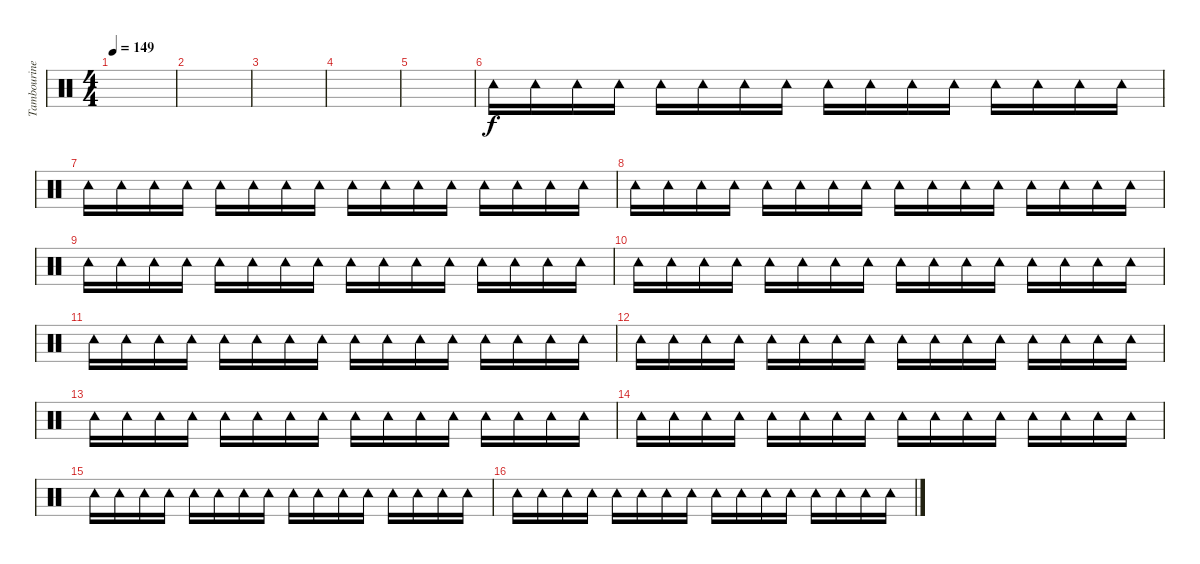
\track ("Tambourine" "Tambourine") {instrument percussion}
\staff {score}
\articulation defaults
\ts (4 4)
\tempo 149
\clef neutral
\ks c
|
|
|
|
|
"Tambourine (hit)".16 "Tambourine (hit)".16 "Tambourine (hit)".16 "Tambourine (hit)".16 "Tambourine (hit)".16 "Tambourine (hit)".16 "Tambourine (hit)".16 "Tambourine (hit)".16 "Tambourine (hit)".16 "Tambourine (hit)".16 "Tambourine (hit)".16 "Tambourine (hit)".16 "Tambourine (hit)".16 "Tambourine (hit)".16 "Tambourine (hit)".16 "Tambourine (hit)".16 |
"Tambourine (hit)".16 "Tambourine (hit)".16 "Tambourine (hit)".16 "Tambourine (hit)".16 "Tambourine (hit)".16 "Tambourine (hit)".16 "Tambourine (hit)".16 "Tambourine (hit)".16 "Tambourine (hit)".16 "Tambourine (hit)".16 "Tambourine (hit)".16 "Tambourine (hit)".16 "Tambourine (hit)".16 "Tambourine (hit)".16 "Tambourine (hit)".16 "Tambourine (hit)".16 |
"Tambourine (hit)".16 "Tambourine (hit)".16 "Tambourine (hit)".16 "Tambourine (hit)".16 "Tambourine (hit)".16 "Tambourine (hit)".16 "Tambourine (hit)".16 "Tambourine (hit)".16 "Tambourine (hit)".16 "Tambourine (hit)".16 "Tambourine (hit)".16 "Tambourine (hit)".16 "Tambourine (hit)".16 "Tambourine (hit)".16 "Tambourine (hit)".16 "Tambourine (hit)".16 |
"Tambourine (hit)".16 "Tambourine (hit)".16 "Tambourine (hit)".16 "Tambourine (hit)".16 "Tambourine (hit)".16 "Tambourine (hit)".16 "Tambourine (hit)".16 "Tambourine (hit)".16 "Tambourine (hit)".16 "Tambourine (hit)".16 "Tambourine (hit)".16 "Tambourine (hit)".16 "Tambourine (hit)".16 "Tambourine (hit)".16 "Tambourine (hit)".16 "Tambourine (hit)".16 |
"Tambourine (hit)".16 "Tambourine (hit)".16 "Tambourine (hit)".16 "Tambourine (hit)".16 "Tambourine (hit)".16 "Tambourine (hit)".16 "Tambourine (hit)".16 "Tambourine (hit)".16 "Tambourine (hit)".16 "Tambourine (hit)".16 "Tambourine (hit)".16 "Tambourine (hit)".16 "Tambourine (hit)".16 "Tambourine (hit)".16 "Tambourine (hit)".16 "Tambourine (hit)".16 |
"Tambourine (hit)".16 "Tambourine (hit)".16 "Tambourine (hit)".16 "Tambourine (hit)".16 "Tambourine (hit)".16 "Tambourine (hit)".16 "Tambourine (hit)".16 "Tambourine (hit)".16 "Tambourine (hit)".16 "Tambourine (hit)".16 "Tambourine (hit)".16 "Tambourine (hit)".16 "Tambourine (hit)".16 "Tambourine (hit)".16 "Tambourine (hit)".16 "Tambourine (hit)".16 |
"Tambourine (hit)".16 "Tambourine (hit)".16 "Tambourine (hit)".16 "Tambourine (hit)".16 "Tambourine (hit)".16 "Tambourine (hit)".16 "Tambourine (hit)".16 "Tambourine (hit)".16 "Tambourine (hit)".16 "Tambourine (hit)".16 "Tambourine (hit)".16 "Tambourine (hit)".16 "Tambourine (hit)".16 "Tambourine (hit)".16 "Tambourine (hit)".16 "Tambourine (hit)".16 |
"Tambourine (hit)".16 "Tambourine (hit)".16 "Tambourine (hit)".16 "Tambourine (hit)".16 "Tambourine (hit)".16 "Tambourine (hit)".16 "Tambourine (hit)".16 "Tambourine (hit)".16 "Tambourine (hit)".16 "Tambourine (hit)".16 "Tambourine (hit)".16 "Tambourine (hit)".16 "Tambourine (hit)".16 "Tambourine (hit)".16 "Tambourine (hit)".16 "Tambourine (hit)".16 |
"Tambourine (hit)".16 "Tambourine (hit)".16 "Tambourine (hit)".16 "Tambourine (hit)".16 "Tambourine (hit)".16 "Tambourine (hit)".16 "Tambourine (hit)".16 "Tambourine (hit)".16 "Tambourine (hit)".16 "Tambourine (hit)".16 "Tambourine (hit)".16 "Tambourine (hit)".16 "Tambourine (hit)".16 "Tambourine (hit)".16 "Tambourine (hit)".16 "Tambourine (hit)".16 |
"Tambourine (hit)".16 "Tambourine (hit)".16 "Tambourine (hit)".16 "Tambourine (hit)".16 "Tambourine (hit)".16 "Tambourine (hit)".16 "Tambourine (hit)".16 "Tambourine (hit)".16 "Tambourine (hit)".16 "Tambourine (hit)".16 "Tambourine (hit)".16 "Tambourine (hit)".16 "Tambourine (hit)".16 "Tambourine (hit)".16 "Tambourine (hit)".16 "Tambourine (hit)".16 |
"Tambourine (hit)".16 "Tambourine (hit)".16 "Tambourine (hit)".16 "Tambourine (hit)".16 "Tambourine (hit)".16 "Tambourine (hit)".16 "Tambourine (hit)".16 "Tambourine (hit)".16 "Tambourine (hit)".16 "Tambourine (hit)".16 "Tambourine (hit)".16 "Tambourine (hit)".16 "Tambourine (hit)".16 "Tambourine (hit)".16 "Tambourine (hit)".16 "Tambourine (hit)".16
